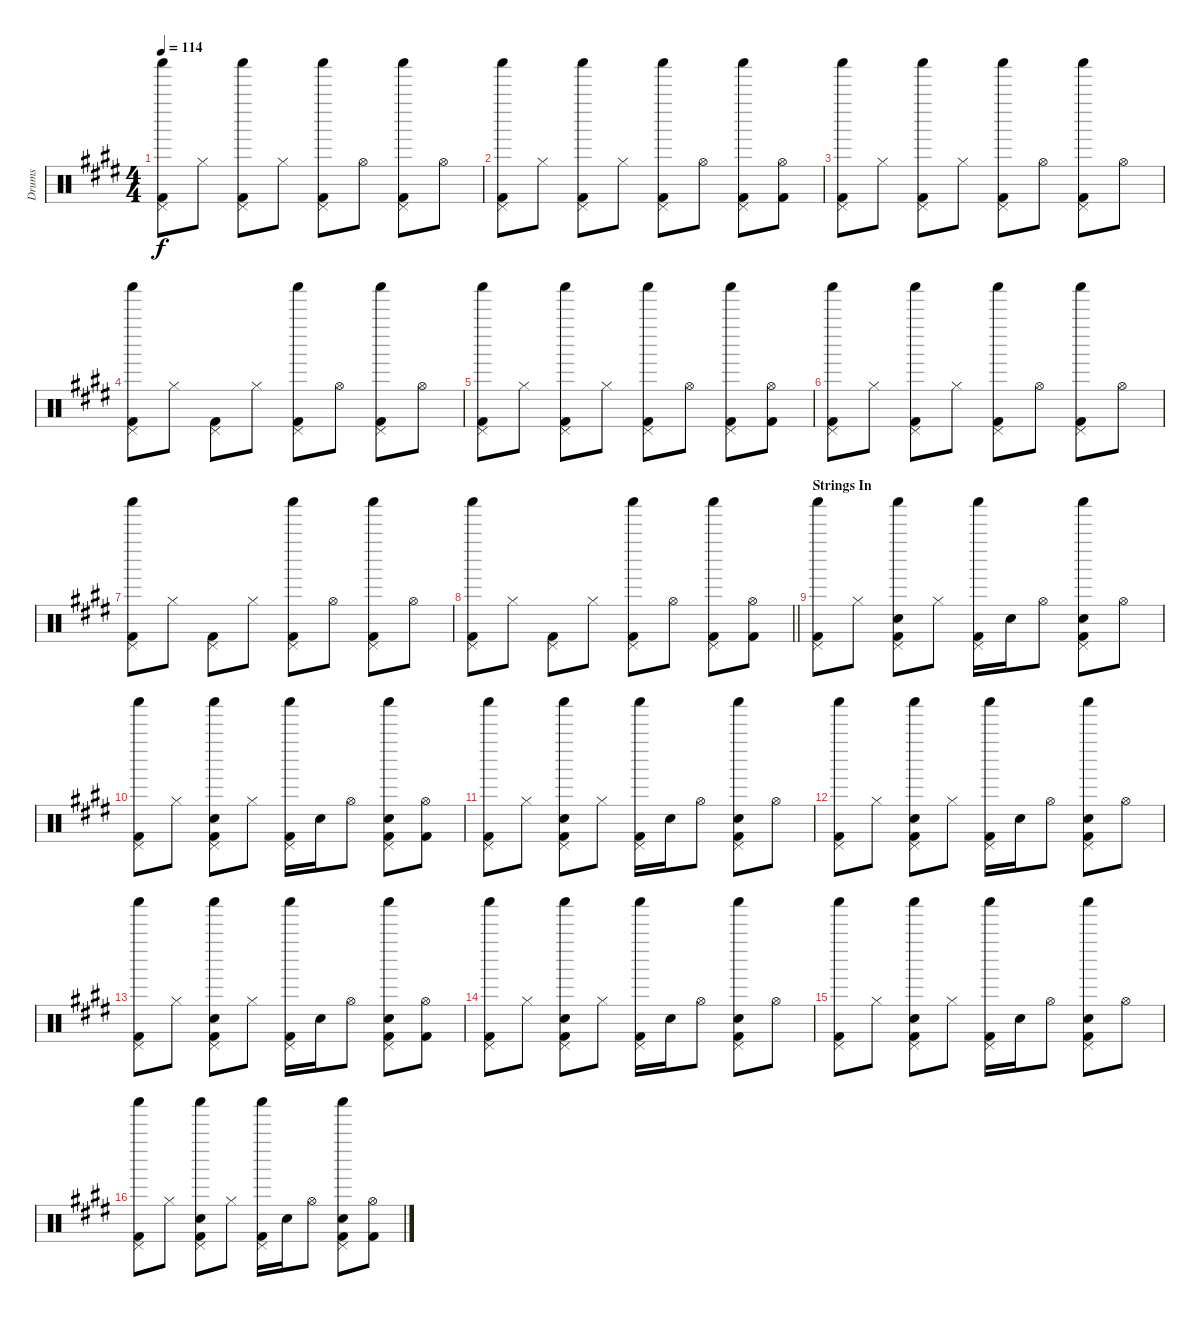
\track ("Drums" "Drums") {instrument percussion}
\staff {score}
\articulation defaults
\ts (4 4)
\tempo 114
\clef neutral
\ks e
("Pedal Hi-Hat (hit)" "Shaker (hit)" "Kick (hit) 2").8{dy f} "Hi-Hat (closed)".8 ("Pedal Hi-Hat (hit)" "Shaker (hit)" "Kick (hit) 2").8 "Hi-Hat (closed)".8 ("Pedal Hi-Hat (hit)" "Shaker (hit)" "Kick (hit) 2").8 "Hi-Hat (open)".8 ("Pedal Hi-Hat (hit)" "Shaker (hit)" "Kick (hit) 2").8 "Hi-Hat (open)".8 |
("Pedal Hi-Hat (hit)" "Shaker (hit)" "Kick (hit) 2").8 "Hi-Hat (closed)".8 ("Pedal Hi-Hat (hit)" "Shaker (hit)" "Kick (hit) 2").8 "Hi-Hat (closed)".8 ("Pedal Hi-Hat (hit)" "Shaker (hit)" "Kick (hit) 2").8 "Hi-Hat (open)".8 ("Pedal Hi-Hat (hit)" "Shaker (hit)" "Kick (hit) 2").8 ("Hi-Hat (open)" "Kick (hit) 2").8 |
("Pedal Hi-Hat (hit)" "Shaker (hit)" "Kick (hit) 2").8 "Hi-Hat (closed)".8 ("Pedal Hi-Hat (hit)" "Shaker (hit)" "Kick (hit) 2").8 "Hi-Hat (closed)".8 ("Pedal Hi-Hat (hit)" "Shaker (hit)" "Kick (hit) 2").8 "Hi-Hat (open)".8 ("Pedal Hi-Hat (hit)" "Shaker (hit)" "Kick (hit) 2").8 "Hi-Hat (open)".8 |
("Pedal Hi-Hat (hit)" "Shaker (hit)" "Kick (hit) 2").8 "Hi-Hat (closed)".8 ("Pedal Hi-Hat (hit)" "Kick (hit) 2").8 "Hi-Hat (closed)".8 ("Pedal Hi-Hat (hit)" "Shaker (hit)" "Kick (hit) 2").8 "Hi-Hat (open)".8 ("Pedal Hi-Hat (hit)" "Shaker (hit)" "Kick (hit) 2").8 "Hi-Hat (open)".8 |
("Pedal Hi-Hat (hit)" "Shaker (hit)" "Kick (hit) 2").8 "Hi-Hat (closed)".8 ("Pedal Hi-Hat (hit)" "Shaker (hit)" "Kick (hit) 2").8 "Hi-Hat (closed)".8 ("Pedal Hi-Hat (hit)" "Shaker (hit)" "Kick (hit) 2").8 "Hi-Hat (open)".8 ("Pedal Hi-Hat (hit)" "Shaker (hit)" "Kick (hit) 2").8 ("Hi-Hat (open)" "Kick (hit) 2").8 |
("Pedal Hi-Hat (hit)" "Shaker (hit)" "Kick (hit) 2").8 "Hi-Hat (closed)".8 ("Pedal Hi-Hat (hit)" "Shaker (hit)" "Kick (hit) 2").8 "Hi-Hat (closed)".8 ("Pedal Hi-Hat (hit)" "Shaker (hit)" "Kick (hit) 2").8 "Hi-Hat (open)".8 ("Pedal Hi-Hat (hit)" "Shaker (hit)" "Kick (hit) 2").8 "Hi-Hat (open)".8 |
("Pedal Hi-Hat (hit)" "Shaker (hit)" "Kick (hit) 2").8 "Hi-Hat (closed)".8 ("Pedal Hi-Hat (hit)" "Kick (hit) 2").8 "Hi-Hat (closed)".8 ("Pedal Hi-Hat (hit)" "Shaker (hit)" "Kick (hit) 2").8 "Hi-Hat (open)".8 ("Pedal Hi-Hat (hit)" "Shaker (hit)" "Kick (hit) 2").8 "Hi-Hat (open)".8 |
\barLineRight lightlight
("Pedal Hi-Hat (hit)" "Shaker (hit)" "Kick (hit) 2").8 "Hi-Hat (closed)".8 ("Pedal Hi-Hat (hit)" "Kick (hit) 2").8 "Hi-Hat (closed)".8 ("Pedal Hi-Hat (hit)" "Shaker (hit)" "Kick (hit) 2").8 "Hi-Hat (open)".8 ("Pedal Hi-Hat (hit)" "Shaker (hit)" "Kick (hit) 2").8 ("Hi-Hat (open)" "Kick (hit) 2").8 |
\section ("" "Strings In")
("Pedal Hi-Hat (hit)" "Shaker (hit)" "Kick (hit) 2").8 "Hi-Hat (closed)".8 ("Pedal Hi-Hat (hit)" "Shaker (hit)" "Electric Snare (hit)" "Kick (hit) 2").8 "Hi-Hat (closed)".8 ("Pedal Hi-Hat (hit)" "Shaker (hit)" "Kick (hit) 2").16 "Electric Snare (hit)".16 "Hi-Hat (open)".8 ("Pedal Hi-Hat (hit)" "Shaker (hit)" "Electric Snare (hit)" "Kick (hit) 2").8 "Hi-Hat (open)".8 |
("Pedal Hi-Hat (hit)" "Shaker (hit)" "Kick (hit) 2").8 "Hi-Hat (closed)".8 ("Pedal Hi-Hat (hit)" "Shaker (hit)" "Electric Snare (hit)" "Kick (hit) 2").8 "Hi-Hat (closed)".8 ("Pedal Hi-Hat (hit)" "Shaker (hit)" "Kick (hit) 2").16 "Electric Snare (hit)".16 "Hi-Hat (open)".8 ("Pedal Hi-Hat (hit)" "Shaker (hit)" "Electric Snare (hit)" "Kick (hit) 2").8 ("Hi-Hat (open)" "Kick (hit) 2").8 |
("Pedal Hi-Hat (hit)" "Shaker (hit)" "Kick (hit) 2").8 "Hi-Hat (closed)".8 ("Pedal Hi-Hat (hit)" "Shaker (hit)" "Electric Snare (hit)" "Kick (hit) 2").8 "Hi-Hat (closed)".8 ("Pedal Hi-Hat (hit)" "Shaker (hit)" "Kick (hit) 2").16 "Electric Snare (hit)".16 "Hi-Hat (open)".8 ("Pedal Hi-Hat (hit)" "Shaker (hit)" "Electric Snare (hit)" "Kick (hit) 2").8 "Hi-Hat (open)".8 |
("Pedal Hi-Hat (hit)" "Shaker (hit)" "Kick (hit) 2").8 "Hi-Hat (closed)".8 ("Pedal Hi-Hat (hit)" "Shaker (hit)" "Electric Snare (hit)" "Kick (hit) 2").8 "Hi-Hat (closed)".8 ("Pedal Hi-Hat (hit)" "Shaker (hit)" "Kick (hit) 2").16 "Electric Snare (hit)".16 "Hi-Hat (open)".8 ("Pedal Hi-Hat (hit)" "Shaker (hit)" "Electric Snare (hit)" "Kick (hit) 2").8 "Hi-Hat (open)".8 |
("Pedal Hi-Hat (hit)" "Shaker (hit)" "Kick (hit) 2").8 "Hi-Hat (closed)".8 ("Pedal Hi-Hat (hit)" "Shaker (hit)" "Electric Snare (hit)" "Kick (hit) 2").8 "Hi-Hat (closed)".8 ("Pedal Hi-Hat (hit)" "Shaker (hit)" "Kick (hit) 2").16 "Electric Snare (hit)".16 "Hi-Hat (open)".8 ("Pedal Hi-Hat (hit)" "Shaker (hit)" "Electric Snare (hit)" "Kick (hit) 2").8 ("Hi-Hat (open)" "Kick (hit) 2").8 |
("Pedal Hi-Hat (hit)" "Shaker (hit)" "Kick (hit) 2").8 "Hi-Hat (closed)".8 ("Pedal Hi-Hat (hit)" "Shaker (hit)" "Electric Snare (hit)" "Kick (hit) 2").8 "Hi-Hat (closed)".8 ("Pedal Hi-Hat (hit)" "Shaker (hit)" "Kick (hit) 2").16 "Electric Snare (hit)".16 "Hi-Hat (open)".8 ("Pedal Hi-Hat (hit)" "Shaker (hit)" "Electric Snare (hit)" "Kick (hit) 2").8 "Hi-Hat (open)".8 |
("Pedal Hi-Hat (hit)" "Shaker (hit)" "Kick (hit) 2").8 "Hi-Hat (closed)".8 ("Pedal Hi-Hat (hit)" "Shaker (hit)" "Electric Snare (hit)" "Kick (hit) 2").8 "Hi-Hat (closed)".8 ("Pedal Hi-Hat (hit)" "Shaker (hit)" "Kick (hit) 2").16 "Electric Snare (hit)".16 "Hi-Hat (open)".8 ("Pedal Hi-Hat (hit)" "Shaker (hit)" "Electric Snare (hit)" "Kick (hit) 2").8 "Hi-Hat (open)".8 |
("Pedal Hi-Hat (hit)" "Shaker (hit)" "Kick (hit) 2").8 "Hi-Hat (closed)".8 ("Pedal Hi-Hat (hit)" "Shaker (hit)" "Electric Snare (hit)" "Kick (hit) 2").8 "Hi-Hat (closed)".8 ("Pedal Hi-Hat (hit)" "Shaker (hit)" "Kick (hit) 2").16 "Electric Snare (hit)".16 "Hi-Hat (open)".8 ("Pedal Hi-Hat (hit)" "Shaker (hit)" "Electric Snare (hit)" "Kick (hit) 2").8 ("Hi-Hat (open)" "Kick (hit) 2").8
